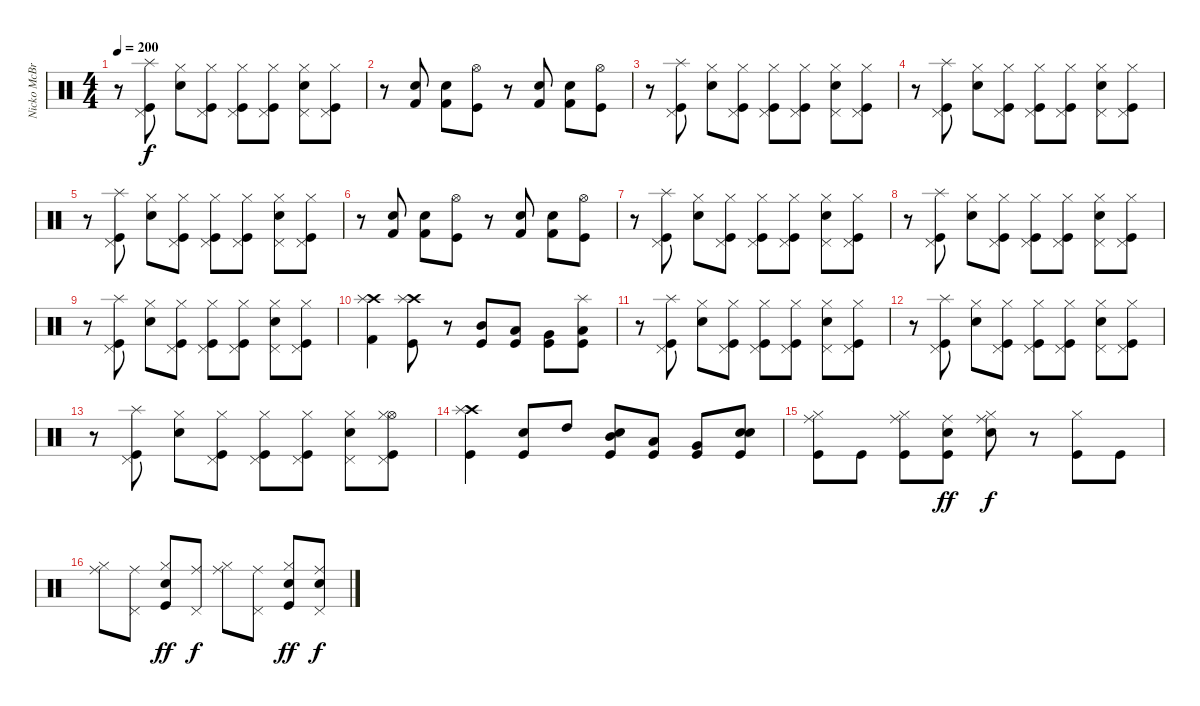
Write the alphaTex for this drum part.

\track ("Nicko McBrain" "Nicko McBr") {instrument percussion}
\staff {score}
\articulation defaults
\ts (4 4)
\tempo 200
\clef neutral
\ks c
r.8{dy f} ("Splash (hit)" "Pedal Hi-Hat (hit)" "Kick (hit)").8 ("Hi-Hat (closed)" "Electric Snare (hit)").8 ("Pedal Hi-Hat (hit)" "Hi-Hat (closed)" "Kick (hit)").8 ("Pedal Hi-Hat (hit)" "Hi-Hat (closed)" "Kick (hit)").8 ("Pedal Hi-Hat (hit)" "Hi-Hat (closed)" "Kick (hit)").8 ("Pedal Hi-Hat (hit)" "Hi-Hat (closed)" "Electric Snare (hit)").8 ("Pedal Hi-Hat (hit)" "Hi-Hat (closed)" "Kick (hit)").8 |
r.8 ("Electric Snare (hit)" "Kick (hit) 2").8 ("Electric Snare (hit)" "Kick (hit) 2").8 ("Hi-Hat (open)" "Kick (hit)").8 r.8 ("Electric Snare (hit)" "Kick (hit) 2").8 ("Electric Snare (hit)" "Kick (hit) 2").8 ("Hi-Hat (open)" "Kick (hit)").8 |
r.8 ("Splash (hit)" "Pedal Hi-Hat (hit)" "Kick (hit)").8 ("Hi-Hat (closed)" "Electric Snare (hit)").8 ("Pedal Hi-Hat (hit)" "Hi-Hat (closed)" "Kick (hit)").8 ("Pedal Hi-Hat (hit)" "Hi-Hat (closed)" "Kick (hit)").8 ("Pedal Hi-Hat (hit)" "Hi-Hat (closed)" "Kick (hit)").8 ("Pedal Hi-Hat (hit)" "Hi-Hat (closed)" "Snare (hit) 2").8 ("Pedal Hi-Hat (hit)" "Hi-Hat (closed)" "Kick (hit)").8 |
r.8 ("Splash (hit)" "Pedal Hi-Hat (hit)" "Kick (hit)").8 ("Hi-Hat (closed)" "Electric Snare (hit)").8 ("Pedal Hi-Hat (hit)" "Hi-Hat (closed)" "Kick (hit)").8 ("Pedal Hi-Hat (hit)" "Hi-Hat (closed)" "Kick (hit)").8 ("Pedal Hi-Hat (hit)" "Hi-Hat (closed)" "Kick (hit)").8 ("Pedal Hi-Hat (hit)" "Hi-Hat (closed)" "Electric Snare (hit)").8 ("Pedal Hi-Hat (hit)" "Hi-Hat (closed)" "Kick (hit)").8 |
r.8 ("Splash (hit)" "Pedal Hi-Hat (hit)" "Kick (hit)").8 ("Hi-Hat (closed)" "Electric Snare (hit)").8 ("Pedal Hi-Hat (hit)" "Hi-Hat (closed)" "Kick (hit)").8 ("Pedal Hi-Hat (hit)" "Hi-Hat (closed)" "Kick (hit)").8 ("Pedal Hi-Hat (hit)" "Hi-Hat (closed)" "Kick (hit)").8 ("Pedal Hi-Hat (hit)" "Hi-Hat (closed)" "Electric Snare (hit)").8 ("Pedal Hi-Hat (hit)" "Hi-Hat (closed)" "Kick (hit)").8 |
r.8 ("Electric Snare (hit)" "Kick (hit) 2").8 ("Electric Snare (hit)" "Kick (hit) 2").8 ("Hi-Hat (open)" "Kick (hit)").8 r.8 ("Electric Snare (hit)" "Kick (hit) 2").8 ("Electric Snare (hit)" "Kick (hit) 2").8 ("Hi-Hat (open)" "Kick (hit)").8 |
r.8 ("Splash (hit)" "Pedal Hi-Hat (hit)" "Kick (hit)").8 ("Hi-Hat (closed)" "Electric Snare (hit)").8 ("Pedal Hi-Hat (hit)" "Hi-Hat (closed)" "Kick (hit)").8 ("Pedal Hi-Hat (hit)" "Hi-Hat (closed)" "Kick (hit)").8 ("Pedal Hi-Hat (hit)" "Hi-Hat (closed)" "Kick (hit)").8 ("Pedal Hi-Hat (hit)" "Hi-Hat (closed)" "Electric Snare (hit)").8 ("Pedal Hi-Hat (hit)" "Hi-Hat (closed)" "Kick (hit)").8 |
r.8 ("Splash (hit)" "Pedal Hi-Hat (hit)" "Kick (hit)").8 ("Hi-Hat (closed)" "Electric Snare (hit)").8 ("Pedal Hi-Hat (hit)" "Hi-Hat (closed)" "Kick (hit)").8 ("Pedal Hi-Hat (hit)" "Hi-Hat (closed)" "Kick (hit)").8 ("Pedal Hi-Hat (hit)" "Hi-Hat (closed)" "Kick (hit)").8 ("Pedal Hi-Hat (hit)" "Hi-Hat (closed)" "Electric Snare (hit)").8 ("Pedal Hi-Hat (hit)" "Hi-Hat (closed)" "Kick (hit)").8 |
r.8 ("Splash (hit)" "Pedal Hi-Hat (hit)" "Kick (hit)").8 ("Hi-Hat (closed)" "Electric Snare (hit)").8 ("Pedal Hi-Hat (hit)" "Hi-Hat (closed)" "Kick (hit)").8 ("Pedal Hi-Hat (hit)" "Hi-Hat (closed)" "Kick (hit)").8 ("Pedal Hi-Hat (hit)" "Hi-Hat (closed)" "Kick (hit)").8 ("Pedal Hi-Hat (hit)" "Hi-Hat (closed)" "Electric Snare (hit)").8 ("Pedal Hi-Hat (hit)" "Hi-Hat (closed)" "Kick (hit)").8 |
("Crash high (hit)" "Splash (hit)" "Kick (hit) 2").4 ("Crash high (hit)" "Splash (hit)" "Kick (hit)").8 r.8 ("Mid Tom (hit)" "Kick (hit)").8 ("Low Tom (hit)" "Kick (hit)").8 ("Very Low Tom (hit)" "Kick (hit)").8 ("Splash (hit)" "Low Floor Tom (hit)" "Kick (hit)").8 |
r.8 ("Splash (hit)" "Pedal Hi-Hat (hit)" "Kick (hit)").8 ("Hi-Hat (closed)" "Electric Snare (hit)").8 ("Pedal Hi-Hat (hit)" "Hi-Hat (closed)" "Kick (hit)").8 ("Pedal Hi-Hat (hit)" "Hi-Hat (closed)" "Kick (hit)").8 ("Pedal Hi-Hat (hit)" "Hi-Hat (closed)" "Kick (hit)").8 ("Pedal Hi-Hat (hit)" "Hi-Hat (closed)" "Electric Snare (hit)").8 ("Pedal Hi-Hat (hit)" "Hi-Hat (closed)" "Kick (hit)").8 |
r.8 ("Splash (hit)" "Pedal Hi-Hat (hit)" "Kick (hit)").8 ("Hi-Hat (closed)" "Electric Snare (hit)").8 ("Pedal Hi-Hat (hit)" "Hi-Hat (closed)" "Kick (hit)").8 ("Pedal Hi-Hat (hit)" "Hi-Hat (closed)" "Kick (hit)").8 ("Pedal Hi-Hat (hit)" "Hi-Hat (closed)" "Kick (hit)").8 ("Pedal Hi-Hat (hit)" "Hi-Hat (closed)" "Electric Snare (hit)").8 ("Pedal Hi-Hat (hit)" "Hi-Hat (closed)" "Kick (hit)").8 |
r.8 ("Splash (hit)" "Pedal Hi-Hat (hit)" "Kick (hit)").8 ("Hi-Hat (closed)" "Electric Snare (hit)").8 ("Pedal Hi-Hat (hit)" "Hi-Hat (closed)" "Kick (hit)").8 ("Pedal Hi-Hat (hit)" "Hi-Hat (closed)" "Kick (hit)").8 ("Pedal Hi-Hat (hit)" "Hi-Hat (closed)" "Kick (hit)").8 ("Pedal Hi-Hat (hit)" "Hi-Hat (closed)" "Electric Snare (hit)").8 ("Hi-Hat (open)" "Pedal Hi-Hat (hit)" "Hi-Hat (closed)" "Kick (hit)").8 |
("Crash high (hit)" "Splash (hit)" "Kick (hit)").4 ("Electric Snare (hit)" "Kick (hit)").8 "High Tom (hit)".8 ("Mid Tom (hit)" "Electric Snare (hit)" "Kick (hit)").8 ("Low Tom (hit)" "Kick (hit)").8 ("Very Low Tom (hit)" "Kick (hit)").8 ("Electric Snare (hit)" "Snare (hit) 2" "Kick (hit)").8 |
("Ride (middle)" "Hi-Hat (closed)" "Kick (hit)").8 "Kick (hit)".8 ("Ride (middle)" "Hi-Hat (closed)" "Kick (hit)").8 ("Ride (middle)" "Electric Snare (hit)" "Kick (hit)").8{dy ff} ("Ride (middle)" "Hi-Hat (closed)" "Snare (hit) 2").8{dy f} r.8 ("Hi-Hat (closed)" "Kick (hit)").8 "Kick (hit)".8 |
("Ride (middle)" "Hi-Hat (closed)").8 ("Ride (middle)" "Pedal Hi-Hat (hit)").8 ("Hi-Hat (closed)" "Electric Snare (hit)" "Kick (hit)").8{dy ff} ("Ride (middle)" "Pedal Hi-Hat (hit)").8{dy f} ("Ride (middle)" "Hi-Hat (closed)").8 ("Ride (middle)" "Pedal Hi-Hat (hit)").8 ("Hi-Hat (closed)" "Electric Snare (hit)" "Kick (hit)").8{dy ff} ("Ride (middle)" "Pedal Hi-Hat (hit)" "Snare (hit) 2").8{dy f}
